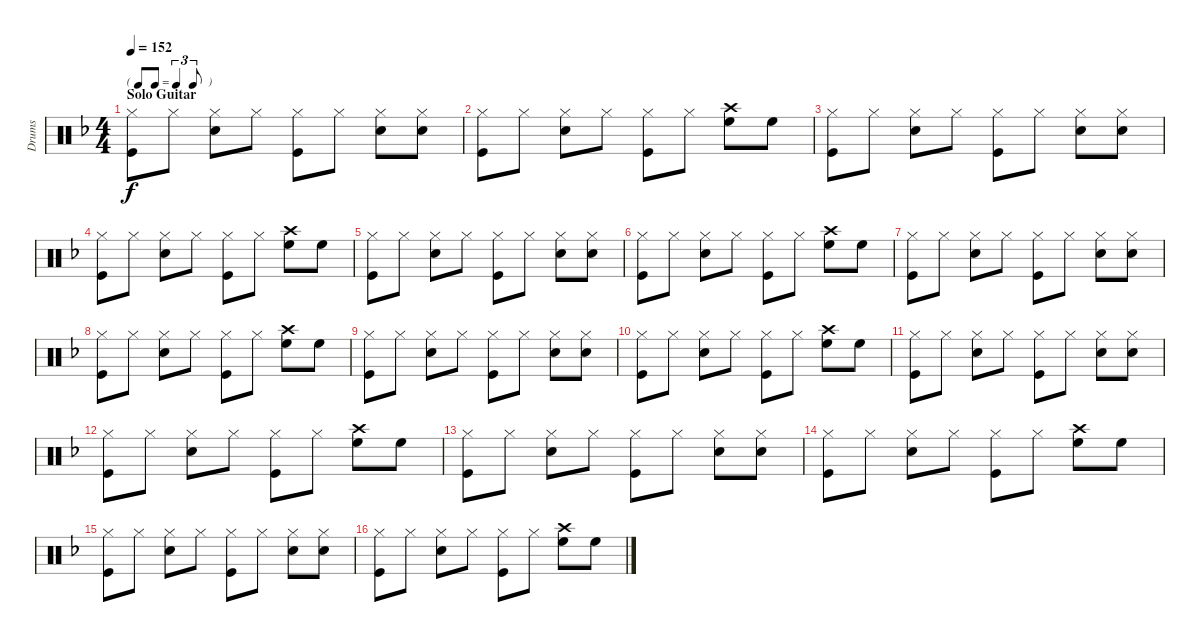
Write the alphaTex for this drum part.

\track ("Drums" "Drums") {instrument percussion}
\staff {score}
\articulation defaults
\ts (4 4)
\tf triplet8th
\section ("" "Solo Guitar")
\tempo 152
\clef neutral
\ks f
("Hi-Hat (closed)" "Kick (hit)").8{dy f} "Hi-Hat (closed)".8 ("Hi-Hat (closed)" "Snare (hit) 2").8 "Hi-Hat (closed)".8 ("Hi-Hat (closed)" "Kick (hit)").8 "Hi-Hat (closed)".8 ("Hi-Hat (closed)" "Snare (hit) 2").8 ("Hi-Hat (closed)" "Snare (hit) 2").8 |
("Hi-Hat (closed)" "Kick (hit)").8 "Hi-Hat (closed)".8 ("Hi-Hat (closed)" "Snare (hit) 2").8 "Hi-Hat (closed)".8 ("Hi-Hat (closed)" "Kick (hit)").8 "Hi-Hat (closed)".8 ("Crash high (hit)" "High Floor Tom (hit)").8 "High Floor Tom (hit)".8 |
("Hi-Hat (closed)" "Kick (hit)").8 "Hi-Hat (closed)".8 ("Hi-Hat (closed)" "Snare (hit) 2").8 "Hi-Hat (closed)".8 ("Hi-Hat (closed)" "Kick (hit)").8 "Hi-Hat (closed)".8 ("Hi-Hat (closed)" "Snare (hit) 2").8 ("Hi-Hat (closed)" "Snare (hit) 2").8 |
("Hi-Hat (closed)" "Kick (hit)").8 "Hi-Hat (closed)".8 ("Hi-Hat (closed)" "Snare (hit) 2").8 "Hi-Hat (closed)".8 ("Hi-Hat (closed)" "Kick (hit)").8 "Hi-Hat (closed)".8 ("Crash high (hit)" "High Floor Tom (hit)").8 "High Floor Tom (hit)".8 |
("Hi-Hat (closed)" "Kick (hit)").8 "Hi-Hat (closed)".8 ("Hi-Hat (closed)" "Snare (hit) 2").8 "Hi-Hat (closed)".8 ("Hi-Hat (closed)" "Kick (hit)").8 "Hi-Hat (closed)".8 ("Hi-Hat (closed)" "Snare (hit) 2").8 ("Hi-Hat (closed)" "Snare (hit) 2").8 |
("Hi-Hat (closed)" "Kick (hit)").8 "Hi-Hat (closed)".8 ("Hi-Hat (closed)" "Snare (hit) 2").8 "Hi-Hat (closed)".8 ("Hi-Hat (closed)" "Kick (hit)").8 "Hi-Hat (closed)".8 ("Crash high (hit)" "High Floor Tom (hit)").8 "High Floor Tom (hit)".8 |
("Hi-Hat (closed)" "Kick (hit)").8 "Hi-Hat (closed)".8 ("Hi-Hat (closed)" "Snare (hit) 2").8 "Hi-Hat (closed)".8 ("Hi-Hat (closed)" "Kick (hit)").8 "Hi-Hat (closed)".8 ("Hi-Hat (closed)" "Snare (hit) 2").8 ("Hi-Hat (closed)" "Snare (hit) 2").8 |
("Hi-Hat (closed)" "Kick (hit)").8 "Hi-Hat (closed)".8 ("Hi-Hat (closed)" "Snare (hit) 2").8 "Hi-Hat (closed)".8 ("Hi-Hat (closed)" "Kick (hit)").8 "Hi-Hat (closed)".8 ("Crash high (hit)" "High Floor Tom (hit)").8 "High Floor Tom (hit)".8 |
("Hi-Hat (closed)" "Kick (hit)").8 "Hi-Hat (closed)".8 ("Hi-Hat (closed)" "Snare (hit) 2").8 "Hi-Hat (closed)".8 ("Hi-Hat (closed)" "Kick (hit)").8 "Hi-Hat (closed)".8 ("Hi-Hat (closed)" "Snare (hit) 2").8 ("Hi-Hat (closed)" "Snare (hit) 2").8 |
("Hi-Hat (closed)" "Kick (hit)").8 "Hi-Hat (closed)".8 ("Hi-Hat (closed)" "Snare (hit) 2").8 "Hi-Hat (closed)".8 ("Hi-Hat (closed)" "Kick (hit)").8 "Hi-Hat (closed)".8 ("Crash high (hit)" "High Floor Tom (hit)").8 "High Floor Tom (hit)".8 |
("Hi-Hat (closed)" "Kick (hit)").8 "Hi-Hat (closed)".8 ("Hi-Hat (closed)" "Snare (hit) 2").8 "Hi-Hat (closed)".8 ("Hi-Hat (closed)" "Kick (hit)").8 "Hi-Hat (closed)".8 ("Hi-Hat (closed)" "Snare (hit) 2").8 ("Hi-Hat (closed)" "Snare (hit) 2").8 |
("Hi-Hat (closed)" "Kick (hit)").8 "Hi-Hat (closed)".8 ("Hi-Hat (closed)" "Snare (hit) 2").8 "Hi-Hat (closed)".8 ("Hi-Hat (closed)" "Kick (hit)").8 "Hi-Hat (closed)".8 ("Crash high (hit)" "High Floor Tom (hit)").8 "High Floor Tom (hit)".8 |
("Hi-Hat (closed)" "Kick (hit)").8 "Hi-Hat (closed)".8 ("Hi-Hat (closed)" "Snare (hit) 2").8 "Hi-Hat (closed)".8 ("Hi-Hat (closed)" "Kick (hit)").8 "Hi-Hat (closed)".8 ("Hi-Hat (closed)" "Snare (hit) 2").8 ("Hi-Hat (closed)" "Snare (hit) 2").8 |
("Hi-Hat (closed)" "Kick (hit)").8 "Hi-Hat (closed)".8 ("Hi-Hat (closed)" "Snare (hit) 2").8 "Hi-Hat (closed)".8 ("Hi-Hat (closed)" "Kick (hit)").8 "Hi-Hat (closed)".8 ("Crash high (hit)" "High Floor Tom (hit)").8 "High Floor Tom (hit)".8 |
("Hi-Hat (closed)" "Kick (hit)").8 "Hi-Hat (closed)".8 ("Hi-Hat (closed)" "Snare (hit) 2").8 "Hi-Hat (closed)".8 ("Hi-Hat (closed)" "Kick (hit)").8 "Hi-Hat (closed)".8 ("Hi-Hat (closed)" "Snare (hit) 2").8 ("Hi-Hat (closed)" "Snare (hit) 2").8 |
("Hi-Hat (closed)" "Kick (hit)").8 "Hi-Hat (closed)".8 ("Hi-Hat (closed)" "Snare (hit) 2").8 "Hi-Hat (closed)".8 ("Hi-Hat (closed)" "Kick (hit)").8 "Hi-Hat (closed)".8 ("Crash high (hit)" "High Floor Tom (hit)").8 "High Floor Tom (hit)".8
